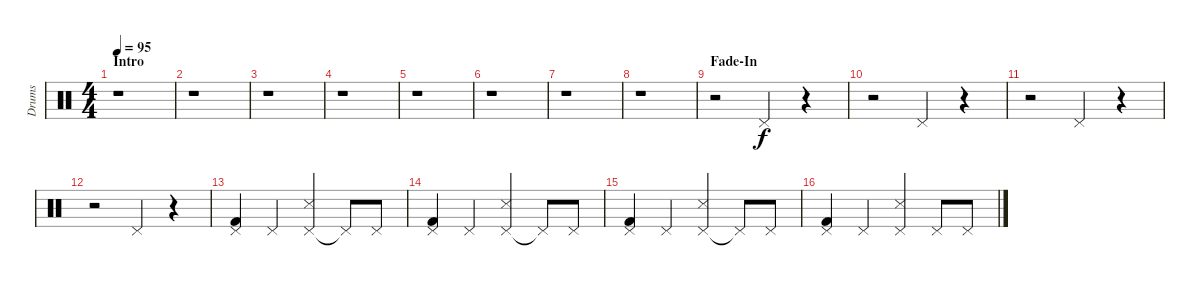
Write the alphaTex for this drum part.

\track ("Drums" "Drums") {instrument percussion}
\staff {score}
\articulation defaults
\ts (4 4)
\section ("" "Intro")
\tempo 95
\clef neutral
\ks c
r.1{dy f} |
r.1 |
r.1 |
r.1 |
r.1 |
r.1 |
r.1 |
r.1 |
\section ("" "Fade-In")
r.2 "Pedal Hi-Hat (hit)".4 r.4 |
r.2 "Pedal Hi-Hat (hit)".4 r.4 |
r.2 "Pedal Hi-Hat (hit)".4 r.4 |
r.2 "Pedal Hi-Hat (hit)".4 r.4 |
("Pedal Hi-Hat (hit)" "Kick (hit) 2").4 "Pedal Hi-Hat (hit)".4 ("Pedal Hi-Hat (hit)" "Snare (side stick) 3").4 "Pedal Hi-Hat (hit)"{t}.8 "Pedal Hi-Hat (hit)".8 |
("Pedal Hi-Hat (hit)" "Kick (hit) 2").4 "Pedal Hi-Hat (hit)".4 ("Pedal Hi-Hat (hit)" "Snare (side stick) 3").4 "Pedal Hi-Hat (hit)"{t}.8 "Pedal Hi-Hat (hit)".8 |
("Pedal Hi-Hat (hit)" "Kick (hit) 2").4 "Pedal Hi-Hat (hit)".4 ("Pedal Hi-Hat (hit)" "Snare (side stick) 3").4 "Pedal Hi-Hat (hit)"{t}.8 "Pedal Hi-Hat (hit)".8 |
("Pedal Hi-Hat (hit)" "Kick (hit) 2").4 "Pedal Hi-Hat (hit)".4 ("Pedal Hi-Hat (hit)" "Snare (side stick) 3").4 "Pedal Hi-Hat (hit)".8 "Pedal Hi-Hat (hit)".8
